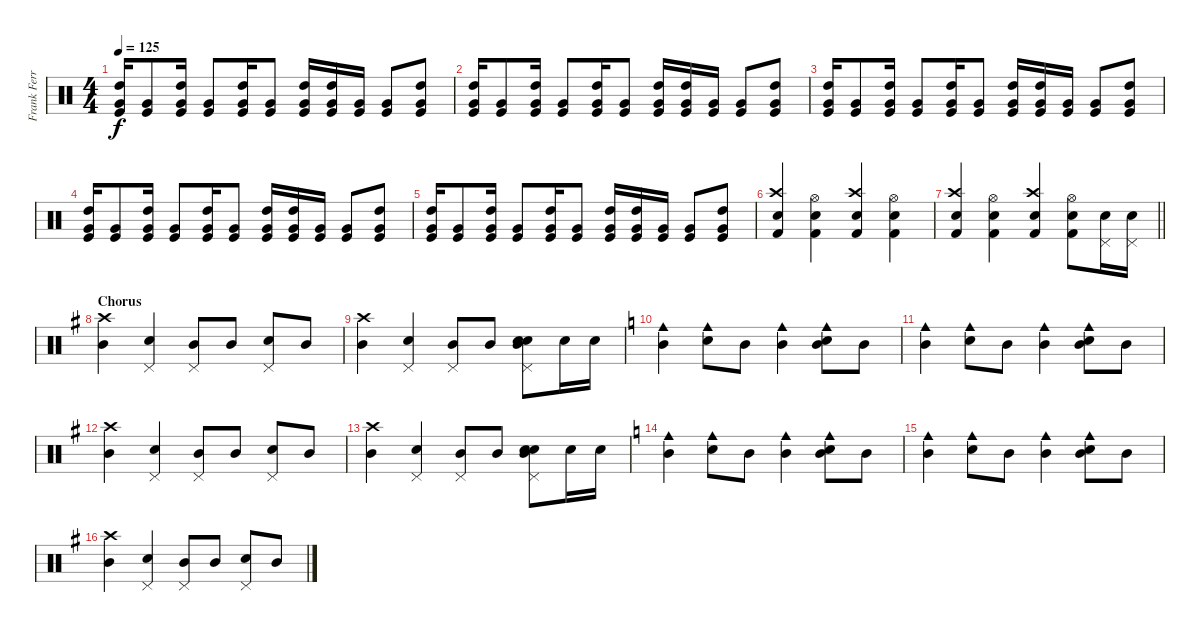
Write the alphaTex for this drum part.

\track ("Frank Ferrer" "Frank Ferr") {instrument percussion}
\staff {score}
\articulation defaults
\ts (4 4)
\tempo 125
\clef neutral
\ks c
("Kick (hit)" "Very Low Tom (hit)" "High Tom (hit)").16{dy f} ("Kick (hit)" "Very Low Tom (hit)").8 ("Kick (hit)" "Very Low Tom (hit)" "High Tom (hit)").16 ("Kick (hit)" "Very Low Tom (hit)").8 ("Kick (hit)" "Very Low Tom (hit)" "High Tom (hit)").16 ("Kick (hit)" "Very Low Tom (hit)").8 ("Kick (hit)" "Very Low Tom (hit)" "High Tom (hit)").16 ("Kick (hit)" "Very Low Tom (hit)" "High Tom (hit)").16 ("Kick (hit)" "Very Low Tom (hit)").16 ("Kick (hit)" "Very Low Tom (hit)").8 ("Kick (hit)" "Very Low Tom (hit)" "High Tom (hit)").8 |
("Kick (hit)" "Very Low Tom (hit)" "High Tom (hit)").16 ("Kick (hit)" "Very Low Tom (hit)").8 ("Kick (hit)" "Very Low Tom (hit)" "High Tom (hit)").16 ("Kick (hit)" "Very Low Tom (hit)").8 ("Kick (hit)" "Very Low Tom (hit)" "High Tom (hit)").16 ("Kick (hit)" "Very Low Tom (hit)").8 ("Kick (hit)" "Very Low Tom (hit)" "High Tom (hit)").16 ("Kick (hit)" "Very Low Tom (hit)" "High Tom (hit)").16 ("Kick (hit)" "Very Low Tom (hit)").16 ("Kick (hit)" "Very Low Tom (hit)").8 ("Kick (hit)" "Very Low Tom (hit)" "High Tom (hit)").8 |
("Kick (hit)" "Very Low Tom (hit)" "High Tom (hit)").16 ("Kick (hit)" "Very Low Tom (hit)").8 ("Kick (hit)" "Very Low Tom (hit)" "High Tom (hit)").16 ("Kick (hit)" "Very Low Tom (hit)").8 ("Kick (hit)" "Very Low Tom (hit)" "High Tom (hit)").16 ("Kick (hit)" "Very Low Tom (hit)").8 ("Kick (hit)" "Very Low Tom (hit)" "High Tom (hit)").16 ("Kick (hit)" "Very Low Tom (hit)" "High Tom (hit)").16 ("Kick (hit)" "Very Low Tom (hit)").16 ("Kick (hit)" "Very Low Tom (hit)").8 ("Kick (hit)" "Very Low Tom (hit)" "High Tom (hit)").8 |
("Kick (hit)" "Very Low Tom (hit)" "High Tom (hit)").16 ("Kick (hit)" "Very Low Tom (hit)").8 ("Kick (hit)" "Very Low Tom (hit)" "High Tom (hit)").16 ("Kick (hit)" "Very Low Tom (hit)").8 ("Kick (hit)" "Very Low Tom (hit)" "High Tom (hit)").16 ("Kick (hit)" "Very Low Tom (hit)").8 ("Kick (hit)" "Very Low Tom (hit)" "High Tom (hit)").16 ("Kick (hit)" "Very Low Tom (hit)" "High Tom (hit)").16 ("Kick (hit)" "Very Low Tom (hit)").16 ("Kick (hit)" "Very Low Tom (hit)").8 ("Kick (hit)" "Very Low Tom (hit)" "High Tom (hit)").8 |
("Kick (hit)" "Very Low Tom (hit)" "High Tom (hit)").16 ("Kick (hit)" "Very Low Tom (hit)").8 ("Kick (hit)" "Very Low Tom (hit)" "High Tom (hit)").16 ("Kick (hit)" "Very Low Tom (hit)").8 ("Kick (hit)" "Very Low Tom (hit)" "High Tom (hit)").16 ("Kick (hit)" "Very Low Tom (hit)").8 ("Kick (hit)" "Very Low Tom (hit)" "High Tom (hit)").16 ("Kick (hit)" "Very Low Tom (hit)" "High Tom (hit)").16 ("Kick (hit)" "Very Low Tom (hit)").16 ("Kick (hit)" "Very Low Tom (hit)").8 ("Kick (hit)" "Very Low Tom (hit)" "High Tom (hit)").8 |
("Kick (hit) 2" "Crash high (hit)" "Snare (hit) 2").4 ("Kick (hit) 2" "Hi-Hat (open)" "Snare (hit) 2").4 ("Kick (hit) 2" "Crash high (hit)" "Snare (hit) 2").4 ("Kick (hit) 2" "Hi-Hat (open)" "Snare (hit) 2").4 |
\barLineRight lightlight
("Kick (hit) 2" "Crash high (hit)" "Snare (hit) 2").4 ("Kick (hit) 2" "Hi-Hat (open)" "Snare (hit) 2").4 ("Kick (hit) 2" "Crash high (hit)" "Snare (hit) 2").4 ("Kick (hit) 2" "Hi-Hat (open)" "Snare (hit) 2").8 ("Pedal Hi-Hat (hit)" "Electric Snare (hit)").16 ("Pedal Hi-Hat (hit)" "Snare (hit) 2").16 |
\section ("" "Chorus")
\ks g
("Crash high (hit)" "Mid Tom (hit)").4 ("Pedal Hi-Hat (hit)" "Snare (hit) 2").4 ("Pedal Hi-Hat (hit)" "Mid Tom (hit)").8 "Mid Tom (hit)".8 ("Pedal Hi-Hat (hit)" "Snare (hit) 2").8 "Mid Tom (hit)".8 |
("Crash high (hit)" "Mid Tom (hit)").4 ("Pedal Hi-Hat (hit)" "Snare (hit) 2").4 ("Pedal Hi-Hat (hit)" "Mid Tom (hit)").8 "Mid Tom (hit)".8 ("Pedal Hi-Hat (hit)" "Snare (hit) 2" "Electric Snare (hit)" "Mid Tom (hit)").8 "Electric Snare (hit)".16 "Electric Snare (hit)".16 |
\ks c
("Mid Tom (hit)" "Cowbell medium (hit)").4 ("Electric Snare (hit)" "Cowbell medium (hit)").8 "Mid Tom (hit)".8 ("Mid Tom (hit)" "Cowbell medium (hit)").4 ("Electric Snare (hit)" "Mid Tom (hit)" "Cowbell medium (hit)").8 "Mid Tom (hit)".8 |
("Mid Tom (hit)" "Cowbell medium (hit)").4 ("Electric Snare (hit)" "Cowbell medium (hit)").8 "Mid Tom (hit)".8 ("Mid Tom (hit)" "Cowbell medium (hit)").4 ("Electric Snare (hit)" "Mid Tom (hit)" "Cowbell medium (hit)").8 "Mid Tom (hit)".8 |
\ks g
("Crash high (hit)" "Mid Tom (hit)").4 ("Pedal Hi-Hat (hit)" "Snare (hit) 2").4 ("Pedal Hi-Hat (hit)" "Mid Tom (hit)").8 "Mid Tom (hit)".8 ("Pedal Hi-Hat (hit)" "Snare (hit) 2").8 "Mid Tom (hit)".8 |
("Crash high (hit)" "Mid Tom (hit)").4 ("Pedal Hi-Hat (hit)" "Snare (hit) 2").4 ("Pedal Hi-Hat (hit)" "Mid Tom (hit)").8 "Mid Tom (hit)".8 ("Pedal Hi-Hat (hit)" "Snare (hit) 2" "Electric Snare (hit)" "Mid Tom (hit)").8 "Electric Snare (hit)".16 "Electric Snare (hit)".16 |
\ks c
("Mid Tom (hit)" "Cowbell medium (hit)").4 ("Electric Snare (hit)" "Cowbell medium (hit)").8 "Mid Tom (hit)".8 ("Mid Tom (hit)" "Cowbell medium (hit)").4 ("Electric Snare (hit)" "Mid Tom (hit)" "Cowbell medium (hit)").8 "Mid Tom (hit)".8 |
("Mid Tom (hit)" "Cowbell medium (hit)").4 ("Electric Snare (hit)" "Cowbell medium (hit)").8 "Mid Tom (hit)".8 ("Mid Tom (hit)" "Cowbell medium (hit)").4 ("Electric Snare (hit)" "Mid Tom (hit)" "Cowbell medium (hit)").8 "Mid Tom (hit)".8 |
\ks g
("Crash high (hit)" "Mid Tom (hit)").4 ("Pedal Hi-Hat (hit)" "Snare (hit) 2").4 ("Pedal Hi-Hat (hit)" "Mid Tom (hit)").8 "Mid Tom (hit)".8 ("Pedal Hi-Hat (hit)" "Snare (hit) 2").8 "Mid Tom (hit)".8
